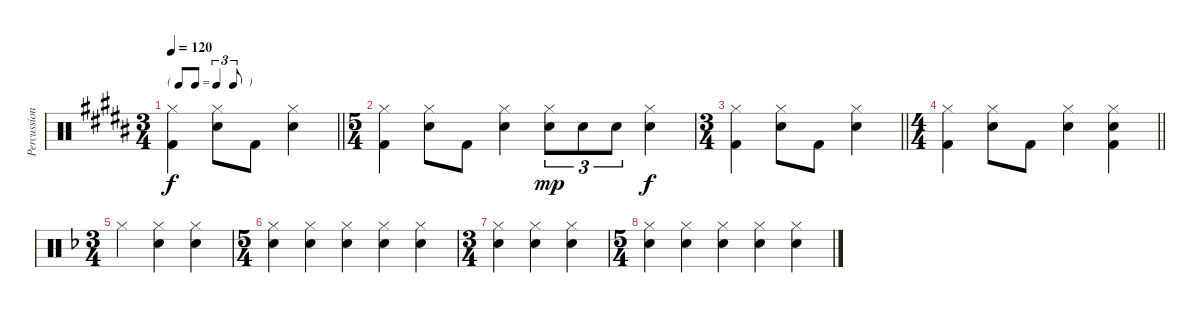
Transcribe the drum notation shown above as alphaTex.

\track ("Percussion" "Percussion") {instrument percussion}
\staff {score}
\articulation defaults
\ts (3 4)
\tf triplet8th
\tempo 120
\clef neutral
\barLineRight lightlight
\ks b
("Hi-Hat (closed)" "Kick (hit) 2").4{dy f} ("Hi-Hat (closed)" "Snare (hit) 2").8 "Kick (hit) 2".8 ("Hi-Hat (closed)" "Snare (hit) 2").4 |
\ts (5 4)
("Hi-Hat (closed)" "Kick (hit) 2").4 ("Hi-Hat (closed)" "Snare (hit) 2").8 "Kick (hit) 2".8 ("Hi-Hat (closed)" "Snare (hit) 2").4 ("Hi-Hat (closed)" "Snare (hit) 2").8{tu (3 2) dy mp} "Snare (hit) 2".8{tu (3 2)} "Snare (hit) 2".8{tu (3 2)} ("Hi-Hat (closed)" "Snare (hit) 2").4{dy f} |
\ts (3 4)
\barLineRight lightlight
("Hi-Hat (closed)" "Kick (hit) 2").4 ("Hi-Hat (closed)" "Snare (hit) 2").8 "Kick (hit) 2".8 ("Hi-Hat (closed)" "Snare (hit) 2").4 |
\ts (4 4)
\barLineRight lightlight
("Hi-Hat (closed)" "Kick (hit) 2").4 ("Hi-Hat (closed)" "Snare (hit) 2").8 "Kick (hit) 2".8 ("Hi-Hat (closed)" "Snare (hit) 2").4 ("Hi-Hat (closed)" "Snare (hit) 2" "Kick (hit) 2").4 |
\ts (3 4)
\ks f "Hi-Hat (closed)".4
("Hi-Hat (closed)" "Snare (hit) 2").4 ("Hi-Hat (closed)" "Snare (hit) 2").4 |
\ts (5 4)
("Hi-Hat (closed)" "Snare (hit) 2").4 ("Hi-Hat (closed)" "Snare (hit) 2").4 ("Hi-Hat (closed)" "Snare (hit) 2").4 ("Hi-Hat (closed)" "Snare (hit) 2").4{volume 0} ("Hi-Hat (closed)" "Snare (hit) 2").4 |
\ts (3 4)
("Hi-Hat (closed)" "Snare (hit) 2").4 ("Hi-Hat (closed)" "Snare (hit) 2").4 ("Hi-Hat (closed)" "Snare (hit) 2").4 |
\ts (5 4)
("Hi-Hat (closed)" "Snare (hit) 2").4 ("Hi-Hat (closed)" "Snare (hit) 2").4 ("Hi-Hat (closed)" "Snare (hit) 2").4 ("Hi-Hat (closed)" "Snare (hit) 2").4 ("Hi-Hat (closed)" "Snare (hit) 2").4
